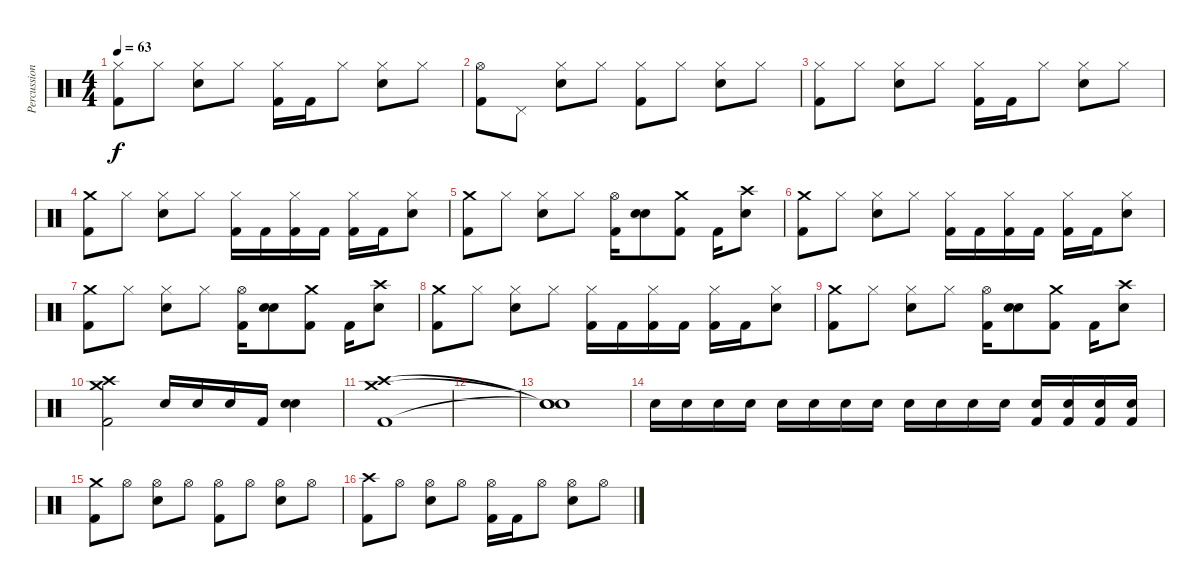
\track ("Percussion" "Percussion") {instrument percussion}
\staff {score}
\articulation defaults
\ts (4 4)
\tempo 63
\clef neutral
\ks c
("Hi-Hat (closed)" "Kick (hit) 2").8{dy f} "Hi-Hat (closed)".8 ("Hi-Hat (closed)" "Snare (hit) 2").8 "Hi-Hat (closed)".8 ("Hi-Hat (closed)" "Kick (hit) 2").16 "Kick (hit) 2".16 "Hi-Hat (closed)".8 ("Hi-Hat (closed)" "Snare (hit) 2").8 "Hi-Hat (closed)".8 |
("Hi-Hat (open)" "Kick (hit) 2").8 "Pedal Hi-Hat (hit)".8 ("Hi-Hat (closed)" "Snare (hit) 2").8 "Hi-Hat (closed)".8 ("Hi-Hat (closed)" "Kick (hit) 2").8 "Hi-Hat (closed)".8 ("Hi-Hat (closed)" "Snare (hit) 2").8 "Hi-Hat (closed)".8 |
("Hi-Hat (closed)" "Kick (hit) 2").8 "Hi-Hat (closed)".8 ("Hi-Hat (closed)" "Snare (hit) 2").8 "Hi-Hat (closed)".8 ("Hi-Hat (closed)" "Kick (hit) 2").16 "Kick (hit) 2".16 "Hi-Hat (closed)".8 ("Hi-Hat (closed)" "Snare (hit) 2").8 "Hi-Hat (closed)".8 |
("Crash medium (hit)" "Kick (hit) 2").8 "Hi-Hat (closed)".8 ("Hi-Hat (closed)" "Snare (hit) 2").8 "Hi-Hat (closed)".8 ("Hi-Hat (closed)" "Kick (hit) 2").16 "Kick (hit) 2".16 ("Hi-Hat (closed)" "Kick (hit) 2").16 "Kick (hit) 2".16 ("Hi-Hat (closed)" "Kick (hit) 2").16 "Kick (hit) 2".16 ("Hi-Hat (closed)" "Snare (hit) 2").8 |
("Crash medium (hit)" "Kick (hit) 2").8 "Hi-Hat (closed)".8 ("Hi-Hat (closed)" "Snare (hit) 2").8 "Hi-Hat (closed)".8 ("Hi-Hat (open)" "Kick (hit) 2").16 ("Snare (hit) 2" "Snare (hit) 2").8{bd 120} ("Crash medium (hit)" "Kick (hit) 2").8 "Kick (hit) 2".16 ("Crash high (hit)" "Snare (hit) 2").8 |
("Crash medium (hit)" "Kick (hit) 2").8 "Hi-Hat (closed)".8 ("Hi-Hat (closed)" "Snare (hit) 2").8 "Hi-Hat (closed)".8 ("Hi-Hat (closed)" "Kick (hit) 2").16 "Kick (hit) 2".16 ("Hi-Hat (closed)" "Kick (hit) 2").16 "Kick (hit) 2".16 ("Hi-Hat (closed)" "Kick (hit) 2").16 "Kick (hit) 2".16 ("Hi-Hat (closed)" "Snare (hit) 2").8 |
("Crash medium (hit)" "Kick (hit) 2").8 "Hi-Hat (closed)".8 ("Hi-Hat (closed)" "Snare (hit) 2").8 "Hi-Hat (closed)".8 ("Hi-Hat (open)" "Kick (hit) 2").16 ("Snare (hit) 2" "Snare (hit) 2").8{bd 120} ("Crash medium (hit)" "Kick (hit) 2").8 "Kick (hit) 2".16 ("Crash high (hit)" "Snare (hit) 2").8 |
("Crash medium (hit)" "Kick (hit) 2").8 "Hi-Hat (closed)".8 ("Hi-Hat (closed)" "Snare (hit) 2").8 "Hi-Hat (closed)".8 ("Hi-Hat (closed)" "Kick (hit) 2").16 "Kick (hit) 2".16 ("Hi-Hat (closed)" "Kick (hit) 2").16 "Kick (hit) 2".16 ("Hi-Hat (closed)" "Kick (hit) 2").16 "Kick (hit) 2".16 ("Hi-Hat (closed)" "Snare (hit) 2").8 |
("Crash medium (hit)" "Kick (hit) 2").8 "Hi-Hat (closed)".8 ("Hi-Hat (closed)" "Snare (hit) 2").8 "Hi-Hat (closed)".8 ("Hi-Hat (open)" "Kick (hit) 2").16 ("Snare (hit) 2" "Snare (hit) 2").8{bd 120} ("Crash medium (hit)" "Kick (hit) 2").8 "Kick (hit) 2".16 ("Crash high (hit)" "Snare (hit) 2").8 |
("Crash medium (hit)" "Crash high (hit)" "Kick (hit) 2").2 "Snare (hit) 2".16 "Snare (hit) 2".16 "Snare (hit) 2".16 "Kick (hit) 2".16 ("Snare (hit) 2" "Snare (hit) 2").4{bd 120} |
("Crash medium (hit)" "Crash high (hit)" "Kick (hit) 2").1 |
|
("Snare (hit)"{t} "Snare (hit)"{t} "Snare (hit)"{t}).1 |
"Snare (hit) 2".16 "Snare (hit) 2".16 "Snare (hit) 2".16 "Snare (hit) 2".16 "Snare (hit) 2".16 "Snare (hit) 2".16 "Snare (hit) 2".16 "Snare (hit) 2".16 "Snare (hit) 2".16 "Snare (hit) 2".16 "Snare (hit) 2".16 "Snare (hit) 2".16 ("Snare (hit) 2" "Kick (hit) 2").16 ("Snare (hit) 2" "Kick (hit) 2").16 ("Snare (hit) 2" "Kick (hit) 2").16 ("Snare (hit) 2" "Kick (hit) 2").16 |
("Crash medium (hit)" "Kick (hit) 2").8 "Hi-Hat (open)".8 ("Hi-Hat (open)" "Snare (hit) 2").8 "Hi-Hat (open)".8 ("Hi-Hat (open)" "Kick (hit) 2").8 "Hi-Hat (open)".8 ("Hi-Hat (open)" "Snare (hit) 2").8 "Hi-Hat (open)".8 |
("Crash high (hit)" "Kick (hit) 2").8 "Hi-Hat (open)".8 ("Hi-Hat (open)" "Snare (hit) 2").8 "Hi-Hat (open)".8 ("Hi-Hat (open)" "Kick (hit) 2").16 "Kick (hit) 2".16 "Hi-Hat (open)".8 ("Hi-Hat (open)" "Snare (hit) 2").8 "Hi-Hat (open)".8
